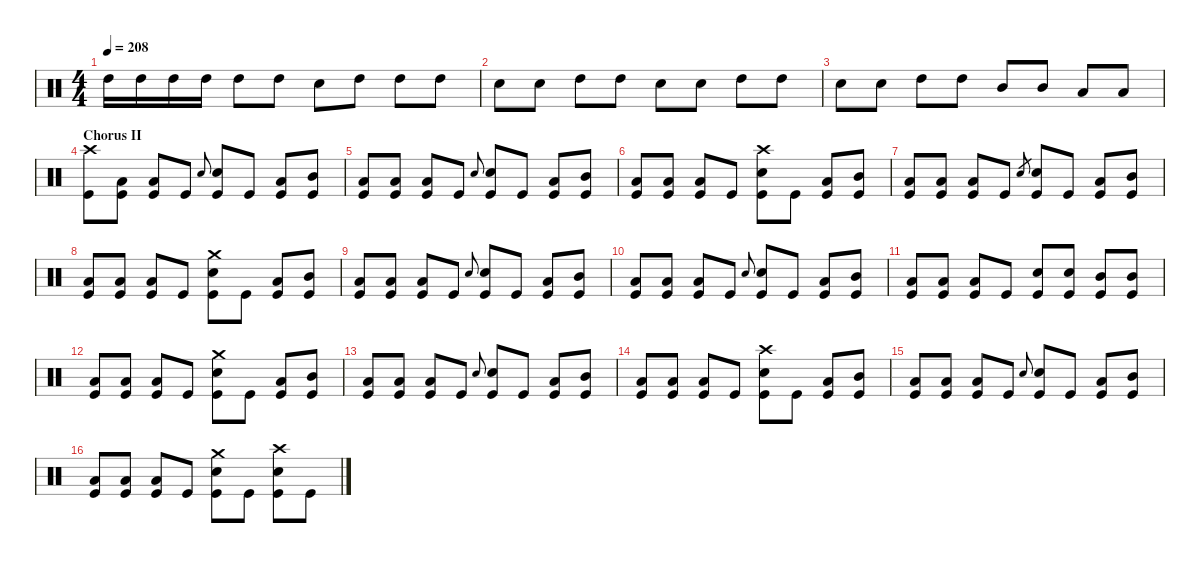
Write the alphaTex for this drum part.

\defaultSystemsLayout 4
\hideDynamics
\bracketExtendMode nobrackets
\singleTrackTrackNamePolicy hidden
\multiTrackTrackNamePolicy hidden
\otherSystemsTrackNameOrientation horizontal
\track ("Drums" "drm.") {multiBarRest instrument percussion}
\staff {score}
\articulation defaults
\ts (4 4)
\tempo 208
\clef neutral
\ks c "High Tom (hit)".16{dy ff beam Down} "High Tom (hit)".16{beam Down} "High Tom (hit)".16{beam Down} "High Tom (hit)".16{beam Down} "High Tom (hit)".8{beam Down} "High Tom (hit)".8{beam Down} "Snare (hit) 2".8{dy f beam Down} "High Tom (hit)".8{dy ff beam Down} "High Tom (hit)".8{beam Down} "High Tom (hit)".8{beam Down}
|
"Snare (hit) 2".8{dy f beam Down} "Snare (hit) 2".8{beam Down} "High Tom (hit)".8{dy ff beam Down} "High Tom (hit)".8{beam Down} "Snare (hit) 2".8{dy f beam Down} "Snare (hit) 2".8{beam Down} "High Tom (hit)".8{dy ff beam Down} "High Tom (hit)".8{beam Down} |
"Snare (hit) 2".8{dy f beam Down} "Snare (hit) 2".8{beam Down} "High Tom (hit)".8{dy ff beam Down} "High Tom (hit)".8{beam Down} "Mid Tom (hit)".8{beam Up} "Mid Tom (hit)".8{beam Up} "Low Tom (hit)".8{beam Up} "Low Tom (hit)".8{beam Up} |
\section ("" "Chorus II")
("Kick (hit)" "Crash high (hit)").8{dy f beam Down} ("Kick (hit)" "Low Tom (hit)").8{beam Down} ("Kick (hit)" "Low Tom (hit)").8{beam Up} "Kick (hit)".8{beam Up} "Snare (hit) 2".8{gr onbeat beam Up} ("Kick (hit)" "Snare (hit) 2").8{beam Up} "Kick (hit)".8{beam Up} ("Kick (hit)" "Low Tom (hit)").8{beam Up} ("Kick (hit)" "Mid Tom (hit)").8{beam Up} |
("Kick (hit)" "Low Tom (hit)").8{beam Up} ("Kick (hit)" "Low Tom (hit)").8{beam Up} ("Kick (hit)" "Low Tom (hit)").8{beam Up} "Kick (hit)".8{beam Up} "Snare (hit) 2".8{gr onbeat beam Up} ("Kick (hit)" "Snare (hit) 2").8{beam Up} "Kick (hit)".8{beam Up} ("Kick (hit)" "Low Tom (hit)").8{beam Up} ("Kick (hit)" "Mid Tom (hit)").8{beam Up} |
("Kick (hit)" "Low Tom (hit)").8{beam Up} ("Kick (hit)" "Low Tom (hit)").8{beam Up} ("Kick (hit)" "Low Tom (hit)").8{beam Up} "Kick (hit)".8{beam Up} ("Kick (hit)" "Snare (hit) 2" "Crash high (hit)").8{beam Down} "Kick (hit)".8{beam Down} ("Kick (hit)" "Low Tom (hit)").8{beam Up} ("Kick (hit)" "Mid Tom (hit)").8{beam Up} |
("Kick (hit)" "Low Tom (hit)").8{beam Up} ("Kick (hit)" "Low Tom (hit)").8{beam Up} ("Kick (hit)" "Low Tom (hit)").8{beam Up} "Kick (hit)".8{beam Up} "Snare (hit) 2".8{gr beam Up} ("Kick (hit)" "Snare (hit) 2").8{beam Up} "Kick (hit)".8{beam Up} ("Kick (hit)" "Low Tom (hit)").8{beam Up} ("Kick (hit)" "Mid Tom (hit)").8{beam Up} |
("Kick (hit)" "Low Tom (hit)").8{beam Up} ("Kick (hit)" "Low Tom (hit)").8{beam Up} ("Kick (hit)" "Low Tom (hit)").8{beam Up} "Kick (hit)".8{beam Up} ("Kick (hit)" "Snare (hit) 2" "Crash medium (hit)").8{beam Down} "Kick (hit)".8{beam Down} ("Kick (hit)" "Low Tom (hit)").8{beam Up} ("Kick (hit)" "Mid Tom (hit)").8{beam Up} |
("Kick (hit)" "Low Tom (hit)").8{beam Up} ("Kick (hit)" "Low Tom (hit)").8{beam Up} ("Kick (hit)" "Low Tom (hit)").8{beam Up} "Kick (hit)".8{beam Up} "Snare (hit) 2".8{gr onbeat beam Up} ("Kick (hit)" "Snare (hit) 2").8{beam Up} "Kick (hit)".8{beam Up} ("Kick (hit)" "Low Tom (hit)").8{beam Up} ("Kick (hit)" "Mid Tom (hit)").8{beam Up} |
("Kick (hit)" "Low Tom (hit)").8{beam Up} ("Kick (hit)" "Low Tom (hit)").8{beam Up} ("Kick (hit)" "Low Tom (hit)").8{beam Up} "Kick (hit)".8{beam Up} "Snare (hit) 2".8{gr onbeat beam Up} ("Kick (hit)" "Snare (hit) 2").8{beam Up} "Kick (hit)".8{beam Up} ("Kick (hit)" "Low Tom (hit)").8{beam Up} ("Kick (hit)" "Mid Tom (hit)").8{beam Up} |
("Kick (hit)" "Low Tom (hit)").8{beam Up} ("Kick (hit)" "Low Tom (hit)").8{beam Up} ("Kick (hit)" "Low Tom (hit)").8{beam Up} "Kick (hit)".8{beam Up} ("Kick (hit)" "Snare (hit) 2").8{beam Up} ("Kick (hit)" "Snare (hit) 2").8{beam Up} ("Kick (hit)" "Mid Tom (hit)").8{beam Up} ("Kick (hit)" "Mid Tom (hit)").8{beam Up} |
("Kick (hit)" "Low Tom (hit)").8{beam Up} ("Kick (hit)" "Low Tom (hit)").8{beam Up} ("Kick (hit)" "Low Tom (hit)").8{beam Up} "Kick (hit)".8{beam Up} ("Kick (hit)" "Snare (hit) 2" "Crash medium (hit)").8{beam Down} "Kick (hit)".8{beam Down} ("Kick (hit)" "Low Tom (hit)").8{beam Up} ("Kick (hit)" "Mid Tom (hit)").8{beam Up} |
("Kick (hit)" "Low Tom (hit)").8{beam Up} ("Kick (hit)" "Low Tom (hit)").8{beam Up} ("Kick (hit)" "Low Tom (hit)").8{beam Up} "Kick (hit)".8{beam Up} "Snare (hit) 2".8{gr onbeat beam Up} ("Kick (hit)" "Snare (hit) 2").8{beam Up} "Kick (hit)".8{beam Up} ("Kick (hit)" "Low Tom (hit)").8{beam Up} ("Kick (hit)" "Mid Tom (hit)").8{beam Up} |
("Kick (hit)" "Low Tom (hit)").8{beam Up} ("Kick (hit)" "Low Tom (hit)").8{beam Up} ("Kick (hit)" "Low Tom (hit)").8{beam Up} "Kick (hit)".8{beam Up} ("Kick (hit)" "Snare (hit) 2" "Crash high (hit)").8{beam Down} "Kick (hit)".8{beam Down} ("Kick (hit)" "Low Tom (hit)").8{beam Up} ("Kick (hit)" "Mid Tom (hit)").8{beam Up} |
("Kick (hit)" "Low Tom (hit)").8{beam Up} ("Kick (hit)" "Low Tom (hit)").8{beam Up} ("Kick (hit)" "Low Tom (hit)").8{beam Up} "Kick (hit)".8{beam Up} "Snare (hit) 2".8{gr onbeat beam Up} ("Kick (hit)" "Snare (hit) 2").8{beam Up} "Kick (hit)".8{beam Up} ("Kick (hit)" "Low Tom (hit)").8{beam Up} ("Kick (hit)" "Mid Tom (hit)").8{beam Up} |
("Kick (hit)" "Low Tom (hit)").8{beam Up} ("Kick (hit)" "Low Tom (hit)").8{beam Up} ("Kick (hit)" "Low Tom (hit)").8{beam Up} "Kick (hit)".8{beam Up} ("Kick (hit)" "Snare (hit) 2" "Crash medium (hit)").8{beam Down} "Kick (hit)".8{beam Down} ("Kick (hit)" "Snare (hit) 2" "Crash high (hit)").8{beam Down} "Kick (hit)".8{beam Down}
